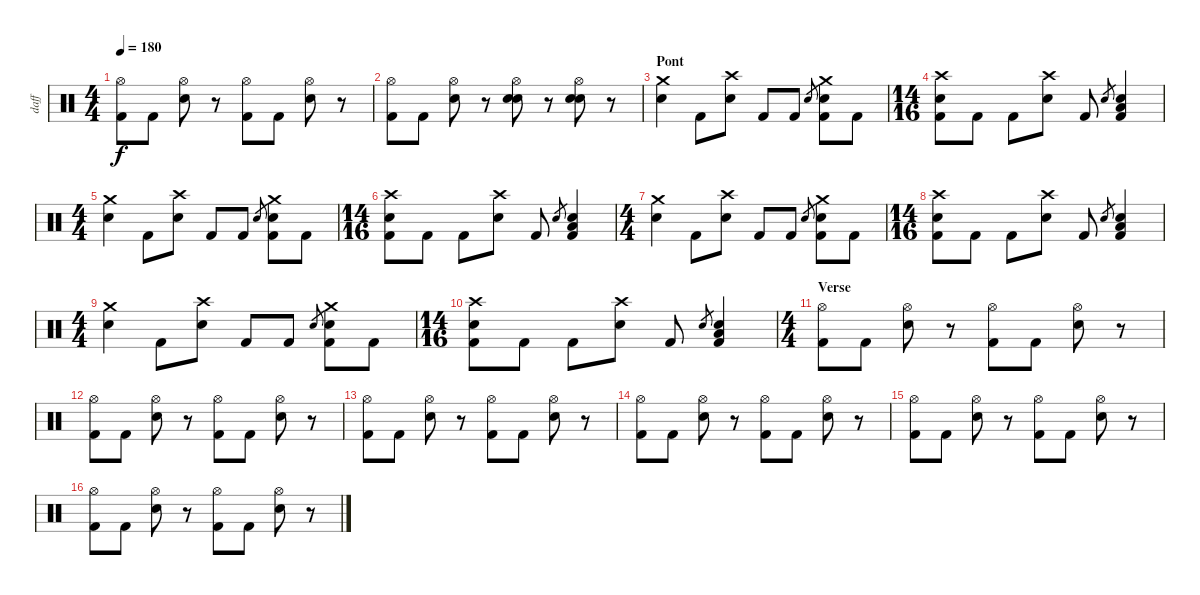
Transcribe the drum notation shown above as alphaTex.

\track ("daff" "daff") {instrument percussion}
\staff {score}
\articulation defaults
\ts (4 4)
\tempo 180
\clef neutral
\ks c
("Hi-Hat (open)" "Kick (hit) 2").8{dy f} "Kick (hit) 2".8 ("Hi-Hat (open)" "Snare (hit) 2").8 r.8 ("Hi-Hat (open)" "Kick (hit) 2").8 "Kick (hit) 2".8 ("Hi-Hat (open)" "Snare (hit) 2").8 r.8 |
("Hi-Hat (open)" "Kick (hit) 2").8 "Kick (hit) 2".8 ("Hi-Hat (open)" "Snare (hit) 2").8 r.8 ("Hi-Hat (open)" "Snare (hit) 2" "Snare (hit) 2").8{bd 60} r.8 ("Hi-Hat (open)" "Snare (hit) 2" "Snare (hit) 2").8{bd 60} r.8 |
\section ("" "Pont")
("Electric Snare (hit)" "Crash medium (hit)").4 "Kick (hit) 2".8 ("Crash high (hit)" "Electric Snare (hit)").8 "Kick (hit) 2".8 "Kick (hit) 2".8 "Electric Snare (hit)".8{gr} ("Crash medium (hit)" "Electric Snare (hit)" "Kick (hit) 2").8 "Kick (hit) 2".8 |
\ts (14 16)
("Crash high (hit)" "Electric Snare (hit)" "Kick (hit) 2").8 "Kick (hit) 2".8 "Kick (hit) 2".8 ("Crash high (hit)" "Electric Snare (hit)").8 "Kick (hit) 2".8 "Electric Snare (hit)".8{gr} ("Electric Snare (hit)" "Low Tom (hit)" "Kick (hit) 2").4 |
\ts (4 4)
("Electric Snare (hit)" "Crash medium (hit)").4 "Kick (hit) 2".8 ("Crash high (hit)" "Electric Snare (hit)").8 "Kick (hit) 2".8 "Kick (hit) 2".8 "Electric Snare (hit)".8{gr} ("Crash medium (hit)" "Electric Snare (hit)" "Kick (hit) 2").8 "Kick (hit) 2".8 |
\ts (14 16)
("Crash high (hit)" "Electric Snare (hit)" "Kick (hit) 2").8 "Kick (hit) 2".8 "Kick (hit) 2".8 ("Crash high (hit)" "Electric Snare (hit)").8 "Kick (hit) 2".8 "Electric Snare (hit)".8{gr} ("Electric Snare (hit)" "Low Tom (hit)" "Kick (hit) 2").4 |
\ts (4 4)
("Electric Snare (hit)" "Crash medium (hit)").4 "Kick (hit) 2".8 ("Crash high (hit)" "Electric Snare (hit)").8 "Kick (hit) 2".8 "Kick (hit) 2".8 "Electric Snare (hit)".8{gr} ("Crash medium (hit)" "Electric Snare (hit)" "Kick (hit) 2").8 "Kick (hit) 2".8 |
\ts (14 16)
("Crash high (hit)" "Electric Snare (hit)" "Kick (hit) 2").8 "Kick (hit) 2".8 "Kick (hit) 2".8 ("Crash high (hit)" "Electric Snare (hit)").8 "Kick (hit) 2".8 "Electric Snare (hit)".8{gr} ("Electric Snare (hit)" "Low Tom (hit)" "Kick (hit) 2").4 |
\ts (4 4)
("Electric Snare (hit)" "Crash medium (hit)").4 "Kick (hit) 2".8 ("Crash high (hit)" "Electric Snare (hit)").8 "Kick (hit) 2".8 "Kick (hit) 2".8 "Electric Snare (hit)".8{gr} ("Crash medium (hit)" "Electric Snare (hit)" "Kick (hit) 2").8 "Kick (hit) 2".8 |
\ts (14 16)
("Crash high (hit)" "Electric Snare (hit)" "Kick (hit) 2").8 "Kick (hit) 2".8 "Kick (hit) 2".8 ("Crash high (hit)" "Electric Snare (hit)").8 "Kick (hit) 2".8 "Electric Snare (hit)".8{gr} ("Electric Snare (hit)" "Low Tom (hit)" "Kick (hit) 2").4 |
\ts (4 4)
\section ("" "Verse")
("Hi-Hat (open)" "Kick (hit) 2").8 "Kick (hit) 2".8 ("Hi-Hat (open)" "Snare (hit) 2").8 r.8 ("Hi-Hat (open)" "Kick (hit) 2").8 "Kick (hit) 2".8 ("Hi-Hat (open)" "Snare (hit) 2").8 r.8 |
("Hi-Hat (open)" "Kick (hit) 2").8 "Kick (hit) 2".8 ("Hi-Hat (open)" "Snare (hit) 2").8 r.8 ("Hi-Hat (open)" "Kick (hit) 2").8 "Kick (hit) 2".8 ("Hi-Hat (open)" "Snare (hit) 2").8 r.8 |
("Hi-Hat (open)" "Kick (hit) 2").8 "Kick (hit) 2".8 ("Hi-Hat (open)" "Snare (hit) 2").8 r.8 ("Hi-Hat (open)" "Kick (hit) 2").8 "Kick (hit) 2".8 ("Hi-Hat (open)" "Snare (hit) 2").8 r.8 |
("Hi-Hat (open)" "Kick (hit) 2").8 "Kick (hit) 2".8 ("Hi-Hat (open)" "Snare (hit) 2").8 r.8 ("Hi-Hat (open)" "Kick (hit) 2").8 "Kick (hit) 2".8 ("Hi-Hat (open)" "Snare (hit) 2").8 r.8 |
("Hi-Hat (open)" "Kick (hit) 2").8 "Kick (hit) 2".8 ("Hi-Hat (open)" "Snare (hit) 2").8 r.8 ("Hi-Hat (open)" "Kick (hit) 2").8 "Kick (hit) 2".8 ("Hi-Hat (open)" "Snare (hit) 2").8 r.8 |
("Hi-Hat (open)" "Kick (hit) 2").8 "Kick (hit) 2".8 ("Hi-Hat (open)" "Snare (hit) 2").8 r.8 ("Hi-Hat (open)" "Kick (hit) 2").8 "Kick (hit) 2".8 ("Hi-Hat (open)" "Snare (hit) 2").8 r.8
